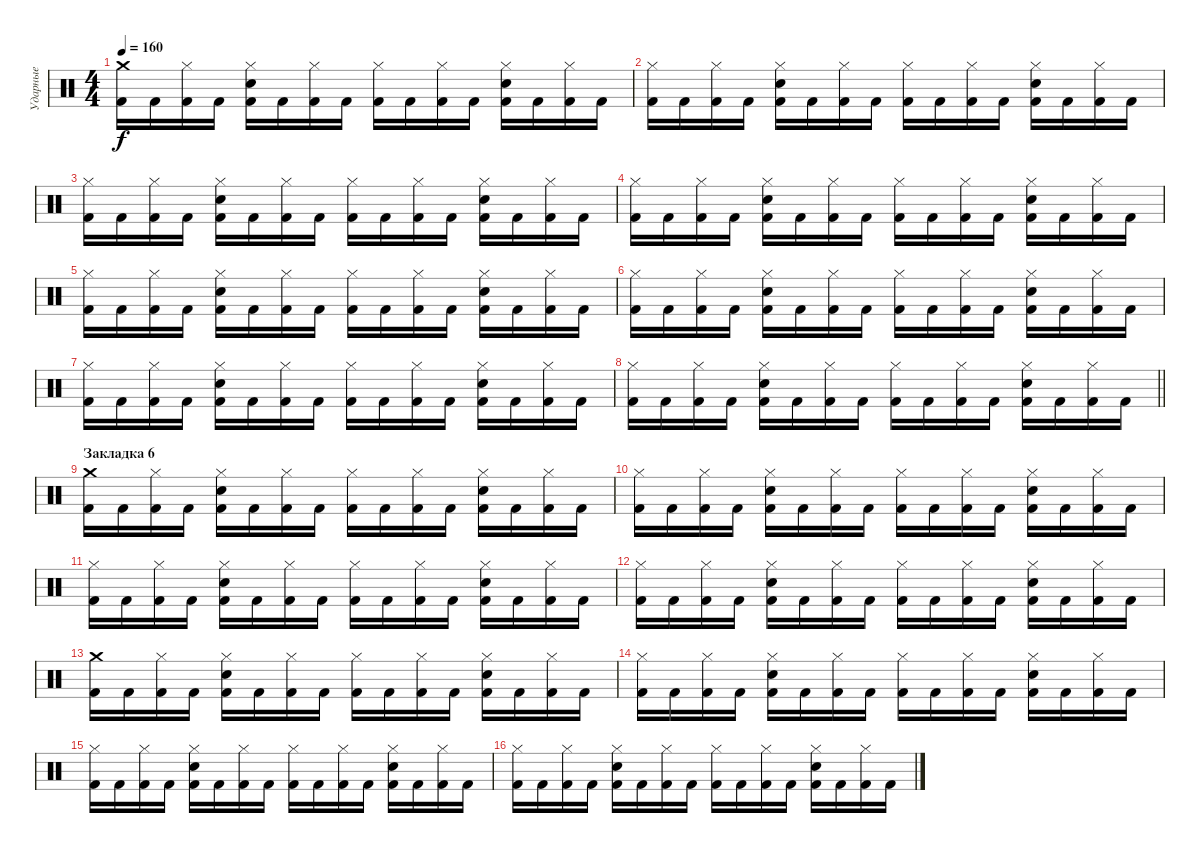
\track ("Ударные" "Ударные") {instrument percussion}
\staff {score}
\articulation defaults
\ts (4 4)
\tempo 160
\clef neutral
\ks c
("Crash medium (hit)" "Kick (hit) 2").16{dy f} "Kick (hit) 2".16 ("Hi-Hat (closed)" "Kick (hit) 2").16 "Kick (hit) 2".16 ("Electric Snare (hit)" "Hi-Hat (closed)" "Kick (hit) 2").16 "Kick (hit) 2".16 ("Hi-Hat (closed)" "Kick (hit) 2").16 "Kick (hit) 2".16 ("Hi-Hat (closed)" "Kick (hit) 2").16 "Kick (hit) 2".16 ("Hi-Hat (closed)" "Kick (hit) 2").16 "Kick (hit) 2".16 ("Electric Snare (hit)" "Hi-Hat (closed)" "Kick (hit) 2").16 "Kick (hit) 2".16 ("Hi-Hat (closed)" "Kick (hit) 2").16 "Kick (hit) 2".16 |
("Hi-Hat (closed)" "Kick (hit) 2").16 "Kick (hit) 2".16 ("Hi-Hat (closed)" "Kick (hit) 2").16 "Kick (hit) 2".16 ("Electric Snare (hit)" "Hi-Hat (closed)" "Kick (hit) 2").16 "Kick (hit) 2".16 ("Hi-Hat (closed)" "Kick (hit) 2").16 "Kick (hit) 2".16 ("Hi-Hat (closed)" "Kick (hit) 2").16 "Kick (hit) 2".16 ("Hi-Hat (closed)" "Kick (hit) 2").16 "Kick (hit) 2".16 ("Electric Snare (hit)" "Hi-Hat (closed)" "Kick (hit) 2").16 "Kick (hit) 2".16 ("Hi-Hat (closed)" "Kick (hit) 2").16 "Kick (hit) 2".16 |
("Hi-Hat (closed)" "Kick (hit) 2").16 "Kick (hit) 2".16 ("Hi-Hat (closed)" "Kick (hit) 2").16 "Kick (hit) 2".16 ("Electric Snare (hit)" "Hi-Hat (closed)" "Kick (hit) 2").16 "Kick (hit) 2".16 ("Hi-Hat (closed)" "Kick (hit) 2").16 "Kick (hit) 2".16 ("Hi-Hat (closed)" "Kick (hit) 2").16 "Kick (hit) 2".16 ("Hi-Hat (closed)" "Kick (hit) 2").16 "Kick (hit) 2".16 ("Electric Snare (hit)" "Hi-Hat (closed)" "Kick (hit) 2").16 "Kick (hit) 2".16 ("Hi-Hat (closed)" "Kick (hit) 2").16 "Kick (hit) 2".16 |
("Hi-Hat (closed)" "Kick (hit) 2").16 "Kick (hit) 2".16 ("Hi-Hat (closed)" "Kick (hit) 2").16 "Kick (hit) 2".16 ("Electric Snare (hit)" "Hi-Hat (closed)" "Kick (hit) 2").16 "Kick (hit) 2".16 ("Hi-Hat (closed)" "Kick (hit) 2").16 "Kick (hit) 2".16 ("Hi-Hat (closed)" "Kick (hit) 2").16 "Kick (hit) 2".16 ("Hi-Hat (closed)" "Kick (hit) 2").16 "Kick (hit) 2".16 ("Electric Snare (hit)" "Hi-Hat (closed)" "Kick (hit) 2").16 "Kick (hit) 2".16 ("Hi-Hat (closed)" "Kick (hit) 2").16 "Kick (hit) 2".16 |
("Hi-Hat (closed)" "Kick (hit) 2").16 "Kick (hit) 2".16 ("Hi-Hat (closed)" "Kick (hit) 2").16 "Kick (hit) 2".16 ("Electric Snare (hit)" "Hi-Hat (closed)" "Kick (hit) 2").16 "Kick (hit) 2".16 ("Hi-Hat (closed)" "Kick (hit) 2").16 "Kick (hit) 2".16 ("Hi-Hat (closed)" "Kick (hit) 2").16 "Kick (hit) 2".16 ("Hi-Hat (closed)" "Kick (hit) 2").16 "Kick (hit) 2".16 ("Electric Snare (hit)" "Hi-Hat (closed)" "Kick (hit) 2").16 "Kick (hit) 2".16 ("Hi-Hat (closed)" "Kick (hit) 2").16 "Kick (hit) 2".16 |
("Hi-Hat (closed)" "Kick (hit) 2").16 "Kick (hit) 2".16 ("Hi-Hat (closed)" "Kick (hit) 2").16 "Kick (hit) 2".16 ("Electric Snare (hit)" "Hi-Hat (closed)" "Kick (hit) 2").16 "Kick (hit) 2".16 ("Hi-Hat (closed)" "Kick (hit) 2").16 "Kick (hit) 2".16 ("Hi-Hat (closed)" "Kick (hit) 2").16 "Kick (hit) 2".16 ("Hi-Hat (closed)" "Kick (hit) 2").16 "Kick (hit) 2".16 ("Electric Snare (hit)" "Hi-Hat (closed)" "Kick (hit) 2").16 "Kick (hit) 2".16 ("Hi-Hat (closed)" "Kick (hit) 2").16 "Kick (hit) 2".16 |
("Hi-Hat (closed)" "Kick (hit) 2").16 "Kick (hit) 2".16 ("Hi-Hat (closed)" "Kick (hit) 2").16 "Kick (hit) 2".16 ("Electric Snare (hit)" "Hi-Hat (closed)" "Kick (hit) 2").16 "Kick (hit) 2".16 ("Hi-Hat (closed)" "Kick (hit) 2").16 "Kick (hit) 2".16 ("Hi-Hat (closed)" "Kick (hit) 2").16 "Kick (hit) 2".16 ("Hi-Hat (closed)" "Kick (hit) 2").16 "Kick (hit) 2".16 ("Electric Snare (hit)" "Hi-Hat (closed)" "Kick (hit) 2").16 "Kick (hit) 2".16 ("Hi-Hat (closed)" "Kick (hit) 2").16 "Kick (hit) 2".16 |
\barLineRight lightlight
("Hi-Hat (closed)" "Kick (hit) 2").16 "Kick (hit) 2".16 ("Hi-Hat (closed)" "Kick (hit) 2").16 "Kick (hit) 2".16 ("Electric Snare (hit)" "Hi-Hat (closed)" "Kick (hit) 2").16 "Kick (hit) 2".16 ("Hi-Hat (closed)" "Kick (hit) 2").16 "Kick (hit) 2".16 ("Hi-Hat (closed)" "Kick (hit) 2").16 "Kick (hit) 2".16 ("Hi-Hat (closed)" "Kick (hit) 2").16 "Kick (hit) 2".16 ("Electric Snare (hit)" "Hi-Hat (closed)" "Kick (hit) 2").16 "Kick (hit) 2".16 ("Hi-Hat (closed)" "Kick (hit) 2").16 "Kick (hit) 2".16 |
\section ("" "Закладка 6")
("Crash medium (hit)" "Kick (hit) 2").16 "Kick (hit) 2".16 ("Hi-Hat (closed)" "Kick (hit) 2").16 "Kick (hit) 2".16 ("Electric Snare (hit)" "Hi-Hat (closed)" "Kick (hit) 2").16 "Kick (hit) 2".16 ("Hi-Hat (closed)" "Kick (hit) 2").16 "Kick (hit) 2".16 ("Hi-Hat (closed)" "Kick (hit) 2").16 "Kick (hit) 2".16 ("Hi-Hat (closed)" "Kick (hit) 2").16 "Kick (hit) 2".16 ("Electric Snare (hit)" "Hi-Hat (closed)" "Kick (hit) 2").16 "Kick (hit) 2".16 ("Hi-Hat (closed)" "Kick (hit) 2").16 "Kick (hit) 2".16 |
("Hi-Hat (closed)" "Kick (hit) 2").16 "Kick (hit) 2".16 ("Hi-Hat (closed)" "Kick (hit) 2").16 "Kick (hit) 2".16 ("Electric Snare (hit)" "Hi-Hat (closed)" "Kick (hit) 2").16 "Kick (hit) 2".16 ("Hi-Hat (closed)" "Kick (hit) 2").16 "Kick (hit) 2".16 ("Hi-Hat (closed)" "Kick (hit) 2").16 "Kick (hit) 2".16 ("Hi-Hat (closed)" "Kick (hit) 2").16 "Kick (hit) 2".16 ("Electric Snare (hit)" "Hi-Hat (closed)" "Kick (hit) 2").16 "Kick (hit) 2".16 ("Hi-Hat (closed)" "Kick (hit) 2").16 "Kick (hit) 2".16 |
("Hi-Hat (closed)" "Kick (hit) 2").16 "Kick (hit) 2".16 ("Hi-Hat (closed)" "Kick (hit) 2").16 "Kick (hit) 2".16 ("Electric Snare (hit)" "Hi-Hat (closed)" "Kick (hit) 2").16 "Kick (hit) 2".16 ("Hi-Hat (closed)" "Kick (hit) 2").16 "Kick (hit) 2".16 ("Hi-Hat (closed)" "Kick (hit) 2").16 "Kick (hit) 2".16 ("Hi-Hat (closed)" "Kick (hit) 2").16 "Kick (hit) 2".16 ("Electric Snare (hit)" "Hi-Hat (closed)" "Kick (hit) 2").16 "Kick (hit) 2".16 ("Hi-Hat (closed)" "Kick (hit) 2").16 "Kick (hit) 2".16 |
("Hi-Hat (closed)" "Kick (hit) 2").16 "Kick (hit) 2".16 ("Hi-Hat (closed)" "Kick (hit) 2").16 "Kick (hit) 2".16 ("Electric Snare (hit)" "Hi-Hat (closed)" "Kick (hit) 2").16 "Kick (hit) 2".16 ("Hi-Hat (closed)" "Kick (hit) 2").16 "Kick (hit) 2".16 ("Hi-Hat (closed)" "Kick (hit) 2").16 "Kick (hit) 2".16 ("Hi-Hat (closed)" "Kick (hit) 2").16 "Kick (hit) 2".16 ("Electric Snare (hit)" "Hi-Hat (closed)" "Kick (hit) 2").16 "Kick (hit) 2".16 ("Hi-Hat (closed)" "Kick (hit) 2").16 "Kick (hit) 2".16 |
("Crash medium (hit)" "Kick (hit) 2").16 "Kick (hit) 2".16 ("Hi-Hat (closed)" "Kick (hit) 2").16 "Kick (hit) 2".16 ("Electric Snare (hit)" "Hi-Hat (closed)" "Kick (hit) 2").16 "Kick (hit) 2".16 ("Hi-Hat (closed)" "Kick (hit) 2").16 "Kick (hit) 2".16 ("Hi-Hat (closed)" "Kick (hit) 2").16 "Kick (hit) 2".16 ("Hi-Hat (closed)" "Kick (hit) 2").16 "Kick (hit) 2".16 ("Electric Snare (hit)" "Hi-Hat (closed)" "Kick (hit) 2").16 "Kick (hit) 2".16 ("Hi-Hat (closed)" "Kick (hit) 2").16 "Kick (hit) 2".16 |
("Hi-Hat (closed)" "Kick (hit) 2").16 "Kick (hit) 2".16 ("Hi-Hat (closed)" "Kick (hit) 2").16 "Kick (hit) 2".16 ("Electric Snare (hit)" "Hi-Hat (closed)" "Kick (hit) 2").16 "Kick (hit) 2".16 ("Hi-Hat (closed)" "Kick (hit) 2").16 "Kick (hit) 2".16 ("Hi-Hat (closed)" "Kick (hit) 2").16 "Kick (hit) 2".16 ("Hi-Hat (closed)" "Kick (hit) 2").16 "Kick (hit) 2".16 ("Electric Snare (hit)" "Hi-Hat (closed)" "Kick (hit) 2").16 "Kick (hit) 2".16 ("Hi-Hat (closed)" "Kick (hit) 2").16 "Kick (hit) 2".16 |
("Hi-Hat (closed)" "Kick (hit) 2").16 "Kick (hit) 2".16 ("Hi-Hat (closed)" "Kick (hit) 2").16 "Kick (hit) 2".16 ("Electric Snare (hit)" "Hi-Hat (closed)" "Kick (hit) 2").16 "Kick (hit) 2".16 ("Hi-Hat (closed)" "Kick (hit) 2").16 "Kick (hit) 2".16 ("Hi-Hat (closed)" "Kick (hit) 2").16 "Kick (hit) 2".16 ("Hi-Hat (closed)" "Kick (hit) 2").16 "Kick (hit) 2".16 ("Electric Snare (hit)" "Hi-Hat (closed)" "Kick (hit) 2").16 "Kick (hit) 2".16 ("Hi-Hat (closed)" "Kick (hit) 2").16 "Kick (hit) 2".16 |
("Hi-Hat (closed)" "Kick (hit) 2").16 "Kick (hit) 2".16 ("Hi-Hat (closed)" "Kick (hit) 2").16 "Kick (hit) 2".16 ("Electric Snare (hit)" "Hi-Hat (closed)" "Kick (hit) 2").16 "Kick (hit) 2".16 ("Hi-Hat (closed)" "Kick (hit) 2").16 "Kick (hit) 2".16 ("Hi-Hat (closed)" "Kick (hit) 2").16 "Kick (hit) 2".16 ("Hi-Hat (closed)" "Kick (hit) 2").16 "Kick (hit) 2".16 ("Electric Snare (hit)" "Hi-Hat (closed)" "Kick (hit) 2").16 "Kick (hit) 2".16 ("Hi-Hat (closed)" "Kick (hit) 2").16 "Kick (hit) 2".16
